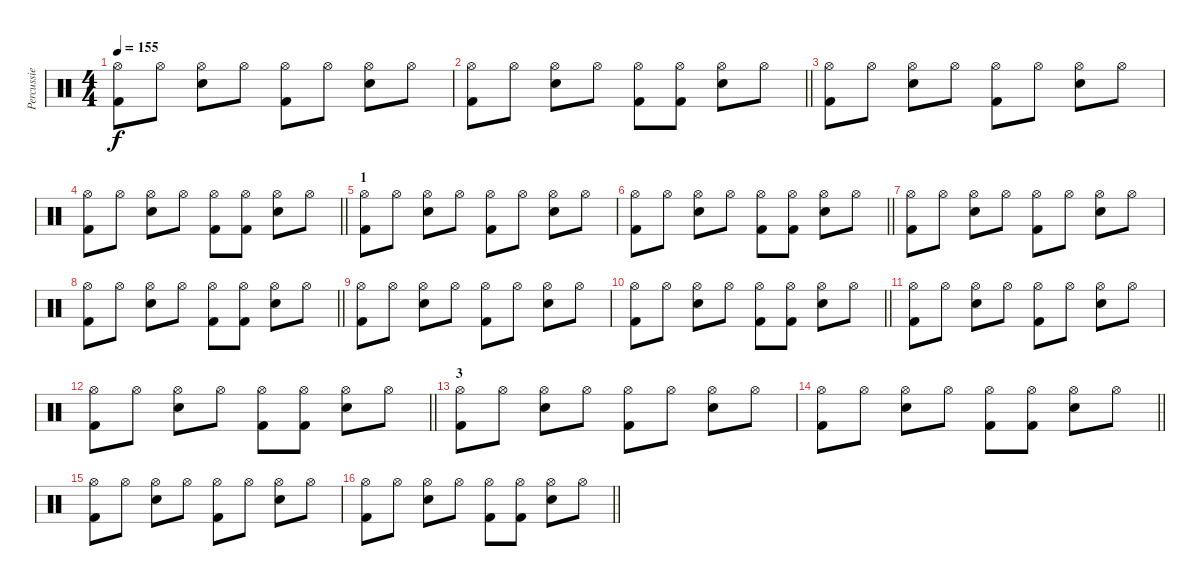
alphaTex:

\track ("Percussie" "Percussie") {instrument percussion}
\staff {score}
\articulation defaults
\ts (4 4)
\tempo 155
\clef neutral
\ks c
("Hi-Hat (open)" "Kick (hit) 2").8{dy f} "Hi-Hat (open)".8 ("Hi-Hat (open)" "Snare (hit) 2").8 "Hi-Hat (open)".8 ("Hi-Hat (open)" "Kick (hit) 2").8 "Hi-Hat (open)".8 ("Hi-Hat (open)" "Snare (hit) 2").8 "Hi-Hat (open)".8 |
\barLineRight lightlight
("Hi-Hat (open)" "Kick (hit) 2").8 "Hi-Hat (open)".8 ("Hi-Hat (open)" "Snare (hit) 2").8 "Hi-Hat (open)".8 ("Hi-Hat (open)" "Kick (hit) 2").8 ("Hi-Hat (open)" "Kick (hit) 2").8 ("Hi-Hat (open)" "Snare (hit) 2").8 "Hi-Hat (open)".8 |
("Hi-Hat (open)" "Kick (hit) 2").8 "Hi-Hat (open)".8 ("Hi-Hat (open)" "Snare (hit) 2").8 "Hi-Hat (open)".8 ("Hi-Hat (open)" "Kick (hit) 2").8 "Hi-Hat (open)".8 ("Hi-Hat (open)" "Snare (hit) 2").8 "Hi-Hat (open)".8 |
\barLineRight lightlight
("Hi-Hat (open)" "Kick (hit) 2").8 "Hi-Hat (open)".8 ("Hi-Hat (open)" "Snare (hit) 2").8 "Hi-Hat (open)".8 ("Hi-Hat (open)" "Kick (hit) 2").8 ("Hi-Hat (open)" "Kick (hit) 2").8 ("Hi-Hat (open)" "Snare (hit) 2").8 "Hi-Hat (open)".8 |
\section ("" "1")
("Hi-Hat (open)" "Kick (hit) 2").8 "Hi-Hat (open)".8 ("Hi-Hat (open)" "Snare (hit) 2").8 "Hi-Hat (open)".8 ("Hi-Hat (open)" "Kick (hit) 2").8 "Hi-Hat (open)".8 ("Hi-Hat (open)" "Snare (hit) 2").8 "Hi-Hat (open)".8 |
\barLineRight lightlight
("Hi-Hat (open)" "Kick (hit) 2").8 "Hi-Hat (open)".8 ("Hi-Hat (open)" "Snare (hit) 2").8 "Hi-Hat (open)".8 ("Hi-Hat (open)" "Kick (hit) 2").8 ("Hi-Hat (open)" "Kick (hit) 2").8 ("Hi-Hat (open)" "Snare (hit) 2").8 "Hi-Hat (open)".8 |
("Hi-Hat (open)" "Kick (hit) 2").8 "Hi-Hat (open)".8 ("Hi-Hat (open)" "Snare (hit) 2").8 "Hi-Hat (open)".8 ("Hi-Hat (open)" "Kick (hit) 2").8 "Hi-Hat (open)".8 ("Hi-Hat (open)" "Snare (hit) 2").8 "Hi-Hat (open)".8 |
\barLineRight lightlight
("Hi-Hat (open)" "Kick (hit) 2").8 "Hi-Hat (open)".8 ("Hi-Hat (open)" "Snare (hit) 2").8 "Hi-Hat (open)".8 ("Hi-Hat (open)" "Kick (hit) 2").8 ("Hi-Hat (open)" "Kick (hit) 2").8 ("Hi-Hat (open)" "Snare (hit) 2").8 "Hi-Hat (open)".8 |
("Hi-Hat (open)" "Kick (hit) 2").8 "Hi-Hat (open)".8 ("Hi-Hat (open)" "Snare (hit) 2").8 "Hi-Hat (open)".8 ("Hi-Hat (open)" "Kick (hit) 2").8 "Hi-Hat (open)".8 ("Hi-Hat (open)" "Snare (hit) 2").8 "Hi-Hat (open)".8 |
\barLineRight lightlight
("Hi-Hat (open)" "Kick (hit) 2").8 "Hi-Hat (open)".8 ("Hi-Hat (open)" "Snare (hit) 2").8 "Hi-Hat (open)".8 ("Hi-Hat (open)" "Kick (hit) 2").8 ("Hi-Hat (open)" "Kick (hit) 2").8 ("Hi-Hat (open)" "Snare (hit) 2").8 "Hi-Hat (open)".8 |
("Hi-Hat (open)" "Kick (hit) 2").8 "Hi-Hat (open)".8 ("Hi-Hat (open)" "Snare (hit) 2").8 "Hi-Hat (open)".8 ("Hi-Hat (open)" "Kick (hit) 2").8 "Hi-Hat (open)".8 ("Hi-Hat (open)" "Snare (hit) 2").8 "Hi-Hat (open)".8 |
\barLineRight lightlight
("Hi-Hat (open)" "Kick (hit) 2").8 "Hi-Hat (open)".8 ("Hi-Hat (open)" "Snare (hit) 2").8 "Hi-Hat (open)".8 ("Hi-Hat (open)" "Kick (hit) 2").8 ("Hi-Hat (open)" "Kick (hit) 2").8 ("Hi-Hat (open)" "Snare (hit) 2").8 "Hi-Hat (open)".8 |
\section ("" "3")
("Hi-Hat (open)" "Kick (hit) 2").8 "Hi-Hat (open)".8 ("Hi-Hat (open)" "Snare (hit) 2").8 "Hi-Hat (open)".8 ("Hi-Hat (open)" "Kick (hit) 2").8 "Hi-Hat (open)".8 ("Hi-Hat (open)" "Snare (hit) 2").8 "Hi-Hat (open)".8 |
\barLineRight lightlight
("Hi-Hat (open)" "Kick (hit) 2").8 "Hi-Hat (open)".8 ("Hi-Hat (open)" "Snare (hit) 2").8 "Hi-Hat (open)".8 ("Hi-Hat (open)" "Kick (hit) 2").8 ("Hi-Hat (open)" "Kick (hit) 2").8 ("Hi-Hat (open)" "Snare (hit) 2").8 "Hi-Hat (open)".8 |
("Hi-Hat (open)" "Kick (hit) 2").8 "Hi-Hat (open)".8 ("Hi-Hat (open)" "Snare (hit) 2").8 "Hi-Hat (open)".8 ("Hi-Hat (open)" "Kick (hit) 2").8 "Hi-Hat (open)".8 ("Hi-Hat (open)" "Snare (hit) 2").8 "Hi-Hat (open)".8 |
\barLineRight lightlight
("Hi-Hat (open)" "Kick (hit) 2").8 "Hi-Hat (open)".8 ("Hi-Hat (open)" "Snare (hit) 2").8 "Hi-Hat (open)".8 ("Hi-Hat (open)" "Kick (hit) 2").8 ("Hi-Hat (open)" "Kick (hit) 2").8 ("Hi-Hat (open)" "Snare (hit) 2").8 "Hi-Hat (open)".8
